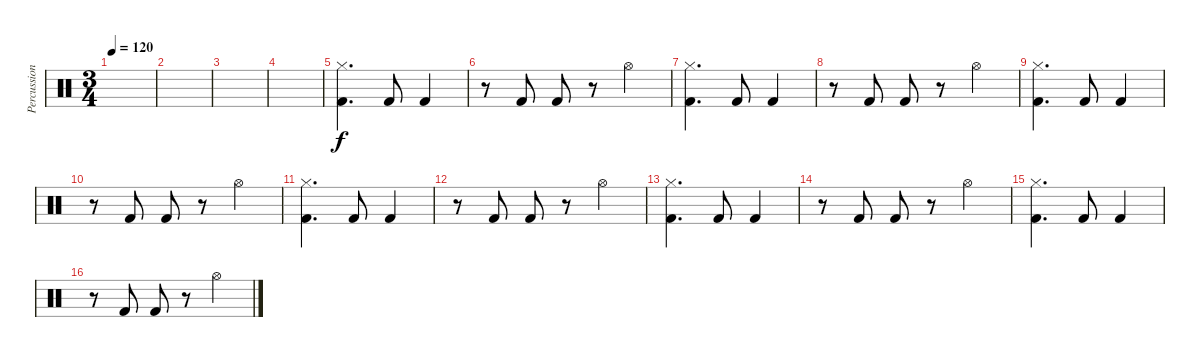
\track ("Percussion" "Percussion") {instrument percussion}
\staff {score}
\articulation defaults
\ts (3 4)
\tempo 120
\clef neutral
\ks c
|
|
|
|
("Kick (hit) 2" "Hi-Hat (closed)").4{d} "Kick (hit) 2".8 "Kick (hit) 2".4 |
r.8 "Kick (hit) 2".8 "Kick (hit) 2".8 r.8 "Hi-Hat (open)".4 |
("Kick (hit) 2" "Hi-Hat (closed)").4{d} "Kick (hit) 2".8 "Kick (hit) 2".4 |
r.8 "Kick (hit) 2".8 "Kick (hit) 2".8 r.8 "Hi-Hat (open)".4 |
("Kick (hit) 2" "Hi-Hat (closed)").4{d} "Kick (hit) 2".8 "Kick (hit) 2".4 |
r.8 "Kick (hit) 2".8 "Kick (hit) 2".8 r.8 "Hi-Hat (open)".4 |
("Kick (hit) 2" "Hi-Hat (closed)").4{d} "Kick (hit) 2".8 "Kick (hit) 2".4 |
r.8 "Kick (hit) 2".8 "Kick (hit) 2".8 r.8 "Hi-Hat (open)".4 |
("Kick (hit) 2" "Hi-Hat (closed)").4{d} "Kick (hit) 2".8 "Kick (hit) 2".4 |
r.8 "Kick (hit) 2".8 "Kick (hit) 2".8 r.8 "Hi-Hat (open)".4 |
("Kick (hit) 2" "Hi-Hat (closed)").4{d} "Kick (hit) 2".8 "Kick (hit) 2".4 |
r.8 "Kick (hit) 2".8 "Kick (hit) 2".8 r.8 "Hi-Hat (open)".4
